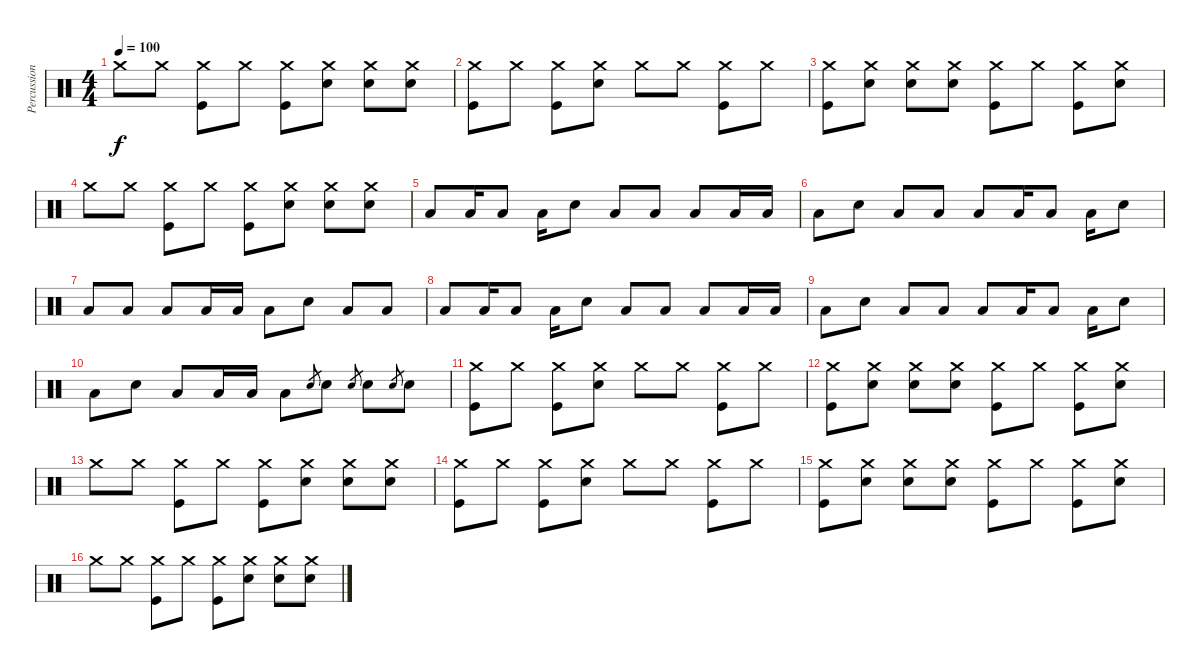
\track ("Percussion" "Percussion") {instrument percussion}
\staff {score}
\articulation defaults
\ts (4 4)
\tempo 100
\clef neutral
\ks c "Crash medium (hit)".8{dy f} "Crash medium (hit)".8
("Crash medium (hit)" "Kick (hit)").8 "Crash medium (hit)".8 ("Crash medium (hit)" "Kick (hit)").8 ("Crash medium (hit)" "Electric Snare (hit)").8 ("Crash medium (hit)" "Electric Snare (hit)").8 ("Crash medium (hit)" "Electric Snare (hit)").8 |
("Crash medium (hit)" "Kick (hit)").8 "Crash medium (hit)".8 ("Crash medium (hit)" "Kick (hit)").8 ("Crash medium (hit)" "Electric Snare (hit)").8 "Crash medium (hit)".8 "Crash medium (hit)".8 ("Crash medium (hit)" "Kick (hit)").8 "Crash medium (hit)".8 |
("Crash medium (hit)" "Kick (hit)").8 ("Crash medium (hit)" "Electric Snare (hit)").8 ("Crash medium (hit)" "Electric Snare (hit)").8 ("Crash medium (hit)" "Electric Snare (hit)").8 ("Crash medium (hit)" "Kick (hit)").8 "Crash medium (hit)".8 ("Crash medium (hit)" "Kick (hit)").8 ("Crash medium (hit)" "Electric Snare (hit)").8 |
"Crash medium (hit)".8 "Crash medium (hit)".8 ("Crash medium (hit)" "Kick (hit)").8 "Crash medium (hit)".8 ("Crash medium (hit)" "Kick (hit)").8 ("Crash medium (hit)" "Electric Snare (hit)").8 ("Crash medium (hit)" "Electric Snare (hit)").8 ("Crash medium (hit)" "Electric Snare (hit)").8 |
"Low Floor Tom (hit)".8 "Low Floor Tom (hit)".16 "Low Floor Tom (hit)".8 "Low Floor Tom (hit)".16 "Electric Snare (hit)".8 "Low Floor Tom (hit)".8 "Low Floor Tom (hit)".8 "Low Floor Tom (hit)".8 "Low Floor Tom (hit)".16 "Low Floor Tom (hit)".16 |
"Low Floor Tom (hit)".8 "Electric Snare (hit)".8 "Low Floor Tom (hit)".8 "Low Floor Tom (hit)".8 "Low Floor Tom (hit)".8 "Low Floor Tom (hit)".16 "Low Floor Tom (hit)".8 "Low Floor Tom (hit)".16 "Electric Snare (hit)".8 |
"Low Floor Tom (hit)".8 "Low Floor Tom (hit)".8 "Low Floor Tom (hit)".8 "Low Floor Tom (hit)".16 "Low Floor Tom (hit)".16 "Low Floor Tom (hit)".8 "Electric Snare (hit)".8 "Low Floor Tom (hit)".8 "Low Floor Tom (hit)".8 |
"Low Floor Tom (hit)".8 "Low Floor Tom (hit)".16 "Low Floor Tom (hit)".8 "Low Floor Tom (hit)".16 "Electric Snare (hit)".8 "Low Floor Tom (hit)".8 "Low Floor Tom (hit)".8 "Low Floor Tom (hit)".8 "Low Floor Tom (hit)".16 "Low Floor Tom (hit)".16 |
"Low Floor Tom (hit)".8 "Electric Snare (hit)".8 "Low Floor Tom (hit)".8 "Low Floor Tom (hit)".8 "Low Floor Tom (hit)".8 "Low Floor Tom (hit)".16 "Low Floor Tom (hit)".8 "Low Floor Tom (hit)".16 "Electric Snare (hit)".8 |
"Low Floor Tom (hit)".8 "Electric Snare (hit)".8 "Low Floor Tom (hit)".8 "Low Floor Tom (hit)".16 "Low Floor Tom (hit)".16 "Low Floor Tom (hit)".8 "Electric Snare (hit)".8{gr} "Electric Snare (hit)".8 "Electric Snare (hit)".8{gr} "Electric Snare (hit)".8 "Electric Snare (hit)".8{gr} "Electric Snare (hit)".8 |
("Crash medium (hit)" "Kick (hit)").8 "Crash medium (hit)".8 ("Crash medium (hit)" "Kick (hit)").8 ("Crash medium (hit)" "Electric Snare (hit)").8 "Crash medium (hit)".8 "Crash medium (hit)".8 ("Crash medium (hit)" "Kick (hit)").8 "Crash medium (hit)".8 |
("Crash medium (hit)" "Kick (hit)").8 ("Crash medium (hit)" "Electric Snare (hit)").8 ("Crash medium (hit)" "Electric Snare (hit)").8 ("Crash medium (hit)" "Electric Snare (hit)").8 ("Crash medium (hit)" "Kick (hit)").8 "Crash medium (hit)".8 ("Crash medium (hit)" "Kick (hit)").8 ("Crash medium (hit)" "Electric Snare (hit)").8 |
"Crash medium (hit)".8 "Crash medium (hit)".8 ("Crash medium (hit)" "Kick (hit)").8 "Crash medium (hit)".8 ("Crash medium (hit)" "Kick (hit)").8 ("Crash medium (hit)" "Electric Snare (hit)").8 ("Crash medium (hit)" "Electric Snare (hit)").8 ("Crash medium (hit)" "Electric Snare (hit)").8 |
("Crash medium (hit)" "Kick (hit)").8 "Crash medium (hit)".8 ("Crash medium (hit)" "Kick (hit)").8 ("Crash medium (hit)" "Electric Snare (hit)").8 "Crash medium (hit)".8 "Crash medium (hit)".8 ("Crash medium (hit)" "Kick (hit)").8 "Crash medium (hit)".8 |
("Crash medium (hit)" "Kick (hit)").8 ("Crash medium (hit)" "Electric Snare (hit)").8 ("Crash medium (hit)" "Electric Snare (hit)").8 ("Crash medium (hit)" "Electric Snare (hit)").8 ("Crash medium (hit)" "Kick (hit)").8 "Crash medium (hit)".8 ("Crash medium (hit)" "Kick (hit)").8 ("Crash medium (hit)" "Electric Snare (hit)").8 |
"Crash medium (hit)".8 "Crash medium (hit)".8 ("Crash medium (hit)" "Kick (hit)").8 "Crash medium (hit)".8 ("Crash medium (hit)" "Kick (hit)").8 ("Crash medium (hit)" "Electric Snare (hit)").8 ("Crash medium (hit)" "Electric Snare (hit)").8 ("Crash medium (hit)" "Electric Snare (hit)").8
